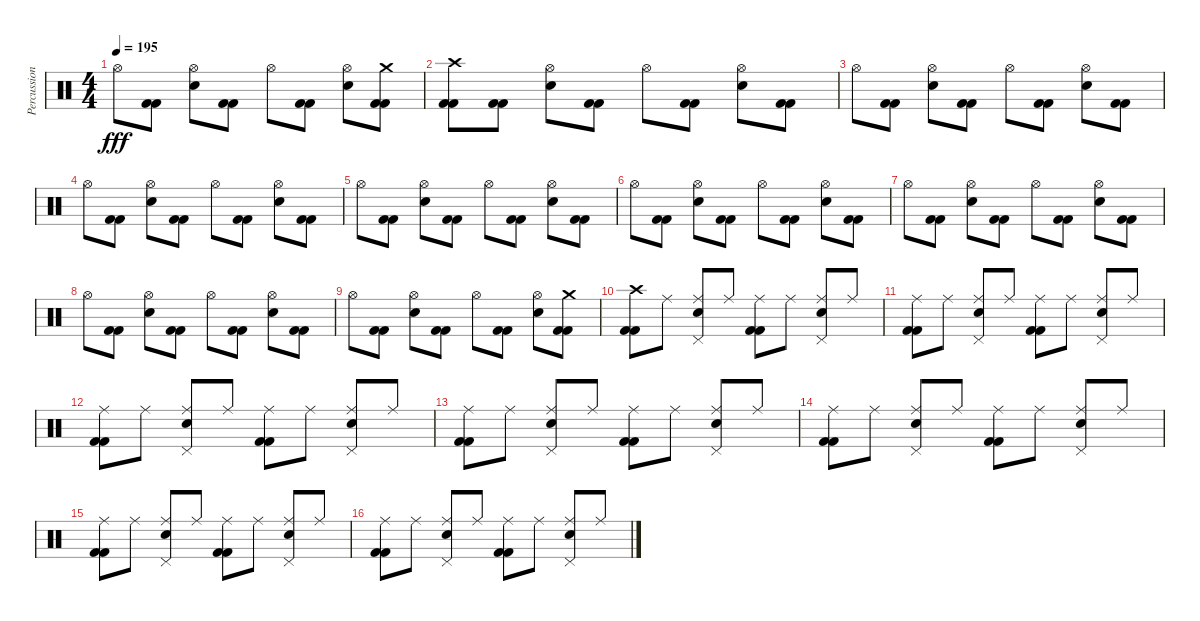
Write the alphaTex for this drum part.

\track ("Percussions" "Percussion") {instrument percussion}
\staff {score}
\articulation defaults
\ts (4 4)
\tempo 195
\clef neutral
\ks c "Hi-Hat (open)".8{dy fff}
("Kick (hit) 2" "Kick (hit) 2").8 ("Hi-Hat (open)" "Electric Snare (hit)").8 ("Kick (hit) 2" "Kick (hit) 2").8 "Hi-Hat (open)".8 ("Kick (hit) 2" "Kick (hit) 2").8 ("Hi-Hat (open)" "Electric Snare (hit)").8 ("Crash medium (hit)" "Kick (hit) 2" "Kick (hit) 2").8 |
("Crash high (hit)" "Kick (hit) 2" "Kick (hit) 2").8 ("Kick (hit) 2" "Kick (hit) 2").8 ("Hi-Hat (open)" "Electric Snare (hit)").8 ("Kick (hit) 2" "Kick (hit) 2").8 "Hi-Hat (open)".8 ("Kick (hit) 2" "Kick (hit) 2").8 ("Hi-Hat (open)" "Electric Snare (hit)").8 ("Kick (hit) 2" "Kick (hit) 2").8 |
"Hi-Hat (open)".8 ("Kick (hit) 2" "Kick (hit) 2").8 ("Hi-Hat (open)" "Electric Snare (hit)").8 ("Kick (hit) 2" "Kick (hit) 2").8 "Hi-Hat (open)".8 ("Kick (hit) 2" "Kick (hit) 2").8 ("Hi-Hat (open)" "Electric Snare (hit)").8 ("Kick (hit) 2" "Kick (hit) 2").8 |
"Hi-Hat (open)".8 ("Kick (hit) 2" "Kick (hit) 2").8 ("Hi-Hat (open)" "Electric Snare (hit)").8 ("Kick (hit) 2" "Kick (hit) 2").8 "Hi-Hat (open)".8 ("Kick (hit) 2" "Kick (hit) 2").8 ("Hi-Hat (open)" "Electric Snare (hit)").8 ("Kick (hit) 2" "Kick (hit) 2").8 |
"Hi-Hat (open)".8 ("Kick (hit) 2" "Kick (hit) 2").8 ("Hi-Hat (open)" "Electric Snare (hit)").8 ("Kick (hit) 2" "Kick (hit) 2").8 "Hi-Hat (open)".8 ("Kick (hit) 2" "Kick (hit) 2").8 ("Hi-Hat (open)" "Electric Snare (hit)").8 ("Kick (hit) 2" "Kick (hit) 2").8 |
"Hi-Hat (open)".8 ("Kick (hit) 2" "Kick (hit) 2").8 ("Hi-Hat (open)" "Electric Snare (hit)").8 ("Kick (hit) 2" "Kick (hit) 2").8 "Hi-Hat (open)".8 ("Kick (hit) 2" "Kick (hit) 2").8 ("Hi-Hat (open)" "Electric Snare (hit)").8 ("Kick (hit) 2" "Kick (hit) 2").8 |
"Hi-Hat (open)".8 ("Kick (hit) 2" "Kick (hit) 2").8 ("Hi-Hat (open)" "Electric Snare (hit)").8 ("Kick (hit) 2" "Kick (hit) 2").8 "Hi-Hat (open)".8 ("Kick (hit) 2" "Kick (hit) 2").8 ("Hi-Hat (open)" "Electric Snare (hit)").8 ("Kick (hit) 2" "Kick (hit) 2").8 |
"Hi-Hat (open)".8 ("Kick (hit) 2" "Kick (hit) 2").8 ("Hi-Hat (open)" "Electric Snare (hit)").8 ("Kick (hit) 2" "Kick (hit) 2").8 "Hi-Hat (open)".8 ("Kick (hit) 2" "Kick (hit) 2").8 ("Hi-Hat (open)" "Electric Snare (hit)").8 ("Kick (hit) 2" "Kick (hit) 2").8 |
"Hi-Hat (open)".8 ("Kick (hit) 2" "Kick (hit) 2").8 ("Hi-Hat (open)" "Electric Snare (hit)").8 ("Kick (hit) 2" "Kick (hit) 2").8 "Hi-Hat (open)".8 ("Kick (hit) 2" "Kick (hit) 2").8 ("Hi-Hat (open)" "Electric Snare (hit)").8 ("Crash medium (hit)" "Kick (hit) 2" "Kick (hit) 2").8 |
("Crash high (hit)" "Kick (hit) 2" "Kick (hit) 2").8 "Ride (middle)".8 ("Ride (middle)" "Pedal Hi-Hat (hit)" "Electric Snare (hit)").8 "Ride (middle)".8 ("Ride (middle)" "Kick (hit) 2" "Kick (hit) 2").8 "Ride (middle)".8 ("Ride (middle)" "Pedal Hi-Hat (hit)" "Electric Snare (hit)").8 "Ride (middle)".8 |
("Ride (middle)" "Kick (hit) 2" "Kick (hit) 2").8 "Ride (middle)".8 ("Ride (middle)" "Pedal Hi-Hat (hit)" "Electric Snare (hit)").8 "Ride (middle)".8 ("Ride (middle)" "Kick (hit) 2" "Kick (hit) 2").8 "Ride (middle)".8 ("Ride (middle)" "Pedal Hi-Hat (hit)" "Electric Snare (hit)").8 "Ride (middle)".8 |
("Ride (middle)" "Kick (hit) 2" "Kick (hit) 2").8 "Ride (middle)".8 ("Ride (middle)" "Pedal Hi-Hat (hit)" "Electric Snare (hit)").8 "Ride (middle)".8 ("Ride (middle)" "Kick (hit) 2" "Kick (hit) 2").8 "Ride (middle)".8 ("Ride (middle)" "Pedal Hi-Hat (hit)" "Electric Snare (hit)").8 "Ride (middle)".8 |
("Ride (middle)" "Kick (hit) 2" "Kick (hit) 2").8 "Ride (middle)".8 ("Ride (middle)" "Pedal Hi-Hat (hit)" "Electric Snare (hit)").8 "Ride (middle)".8 ("Ride (middle)" "Kick (hit) 2" "Kick (hit) 2").8 "Ride (middle)".8 ("Ride (middle)" "Pedal Hi-Hat (hit)" "Electric Snare (hit)").8 "Ride (middle)".8 |
("Ride (middle)" "Kick (hit) 2" "Kick (hit) 2").8 "Ride (middle)".8 ("Ride (middle)" "Pedal Hi-Hat (hit)" "Electric Snare (hit)").8 "Ride (middle)".8 ("Ride (middle)" "Kick (hit) 2" "Kick (hit) 2").8 "Ride (middle)".8 ("Ride (middle)" "Pedal Hi-Hat (hit)" "Electric Snare (hit)").8 "Ride (middle)".8 |
("Ride (middle)" "Kick (hit) 2" "Kick (hit) 2").8 "Ride (middle)".8 ("Ride (middle)" "Pedal Hi-Hat (hit)" "Electric Snare (hit)").8 "Ride (middle)".8 ("Ride (middle)" "Kick (hit) 2" "Kick (hit) 2").8 "Ride (middle)".8 ("Ride (middle)" "Pedal Hi-Hat (hit)" "Electric Snare (hit)").8 "Ride (middle)".8 |
("Ride (middle)" "Kick (hit) 2" "Kick (hit) 2").8 "Ride (middle)".8 ("Ride (middle)" "Pedal Hi-Hat (hit)" "Electric Snare (hit)").8 "Ride (middle)".8 ("Ride (middle)" "Kick (hit) 2" "Kick (hit) 2").8 "Ride (middle)".8 ("Ride (middle)" "Pedal Hi-Hat (hit)" "Electric Snare (hit)").8 "Ride (middle)".8
